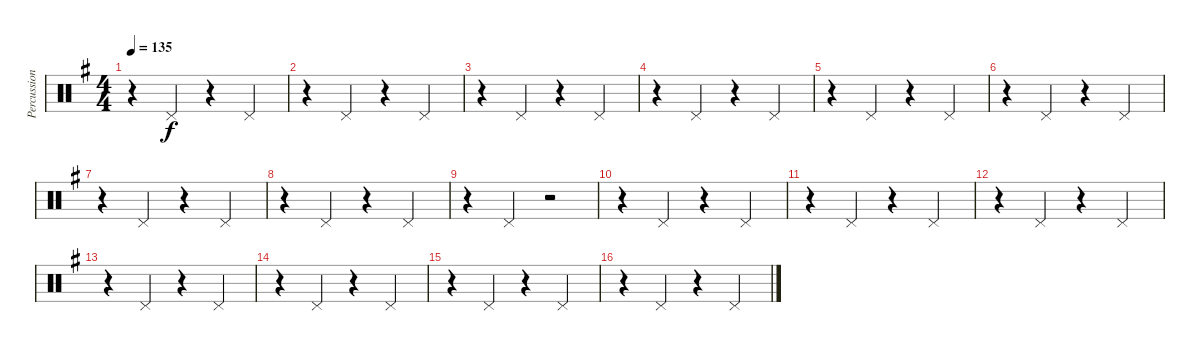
\track ("Percussion" "Percussion") {instrument percussion}
\staff {score}
\articulation defaults
\ts (4 4)
\tempo 135
\clef neutral
\ks g
r.4{dy f} "Pedal Hi-Hat (hit)".4 r.4 "Pedal Hi-Hat (hit)".4 |
r.4 "Pedal Hi-Hat (hit)".4 r.4 "Pedal Hi-Hat (hit)".4 |
r.4 "Pedal Hi-Hat (hit)".4 r.4 "Pedal Hi-Hat (hit)".4 |
r.4 "Pedal Hi-Hat (hit)".4 r.4 "Pedal Hi-Hat (hit)".4 |
r.4 "Pedal Hi-Hat (hit)".4 r.4 "Pedal Hi-Hat (hit)".4 |
r.4 "Pedal Hi-Hat (hit)".4 r.4 "Pedal Hi-Hat (hit)".4 |
r.4 "Pedal Hi-Hat (hit)".4 r.4 "Pedal Hi-Hat (hit)".4 |
r.4 "Pedal Hi-Hat (hit)".4 r.4 "Pedal Hi-Hat (hit)".4 |
r.4 "Pedal Hi-Hat (hit)".4 r.2 |
r.4 "Pedal Hi-Hat (hit)".4 r.4 "Pedal Hi-Hat (hit)".4 |
r.4 "Pedal Hi-Hat (hit)".4 r.4 "Pedal Hi-Hat (hit)".4 |
r.4 "Pedal Hi-Hat (hit)".4 r.4 "Pedal Hi-Hat (hit)".4 |
r.4 "Pedal Hi-Hat (hit)".4 r.4 "Pedal Hi-Hat (hit)".4 |
r.4 "Pedal Hi-Hat (hit)".4 r.4 "Pedal Hi-Hat (hit)".4 |
r.4 "Pedal Hi-Hat (hit)".4 r.4 "Pedal Hi-Hat (hit)".4 |
r.4 "Pedal Hi-Hat (hit)".4 r.4 "Pedal Hi-Hat (hit)".4
